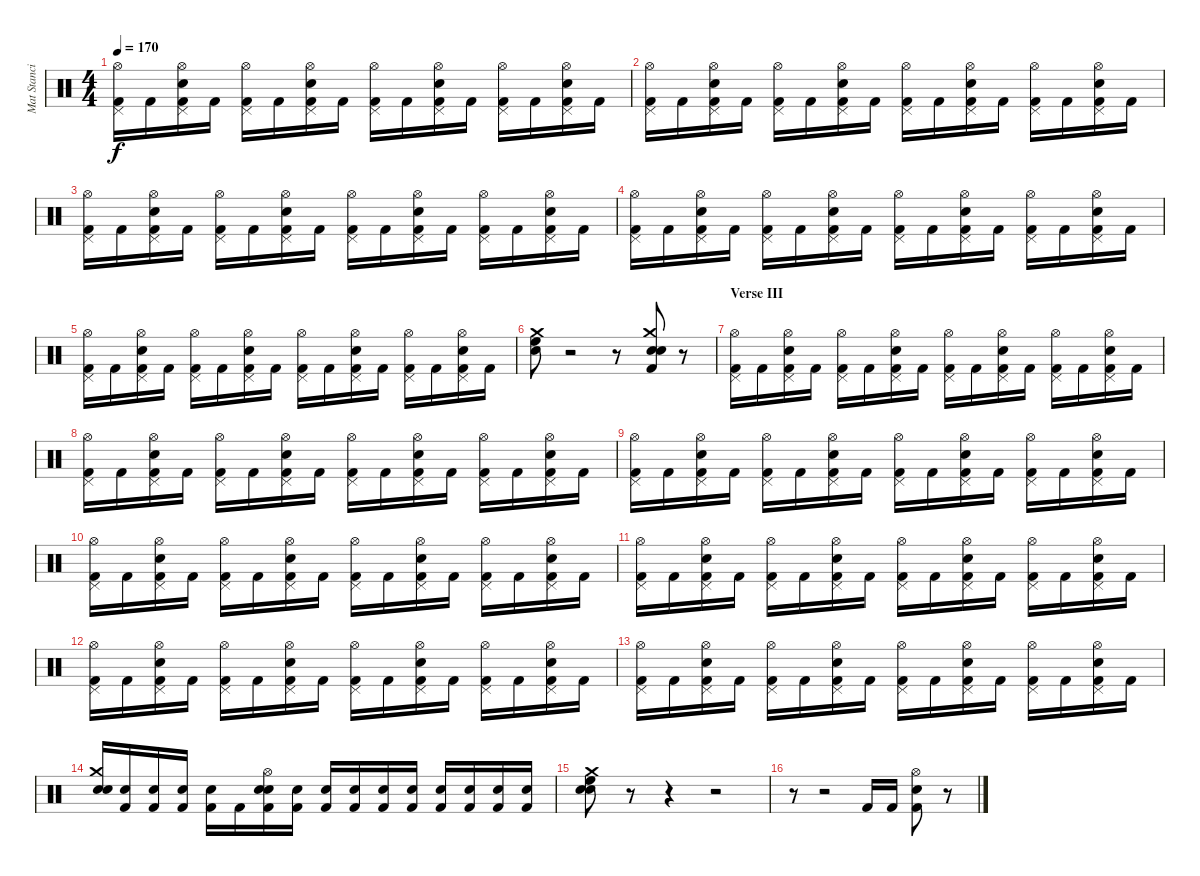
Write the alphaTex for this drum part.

\track ("Mat Stancioiu" "Mat Stanci") {instrument percussion}
\staff {score}
\articulation defaults
\ts (4 4)
\tempo 170
\clef neutral
\ks c
("Hi-Hat (open)" "Kick (hit) 2" "Pedal Hi-Hat (hit)").16{dy f} "Kick (hit) 2".16 ("Electric Snare (hit)" "Hi-Hat (open)" "Kick (hit) 2" "Pedal Hi-Hat (hit)").16 "Kick (hit) 2".16 ("Hi-Hat (open)" "Kick (hit) 2" "Pedal Hi-Hat (hit)").16 "Kick (hit) 2".16 ("Electric Snare (hit)" "Hi-Hat (open)" "Kick (hit) 2" "Pedal Hi-Hat (hit)").16 "Kick (hit) 2".16 ("Hi-Hat (open)" "Kick (hit) 2" "Pedal Hi-Hat (hit)").16 "Kick (hit) 2".16 ("Electric Snare (hit)" "Hi-Hat (open)" "Kick (hit) 2" "Pedal Hi-Hat (hit)").16 "Kick (hit) 2".16 ("Hi-Hat (open)" "Kick (hit) 2" "Pedal Hi-Hat (hit)").16 "Kick (hit) 2".16 ("Electric Snare (hit)" "Hi-Hat (open)" "Kick (hit) 2" "Pedal Hi-Hat (hit)").16 "Kick (hit) 2".16 |
("Hi-Hat (open)" "Kick (hit) 2" "Pedal Hi-Hat (hit)").16 "Kick (hit) 2".16 ("Electric Snare (hit)" "Hi-Hat (open)" "Kick (hit) 2" "Pedal Hi-Hat (hit)").16 "Kick (hit) 2".16 ("Hi-Hat (open)" "Kick (hit) 2" "Pedal Hi-Hat (hit)").16 "Kick (hit) 2".16 ("Electric Snare (hit)" "Hi-Hat (open)" "Kick (hit) 2" "Pedal Hi-Hat (hit)").16 "Kick (hit) 2".16 ("Hi-Hat (open)" "Kick (hit) 2" "Pedal Hi-Hat (hit)").16 "Kick (hit) 2".16 ("Electric Snare (hit)" "Hi-Hat (open)" "Kick (hit) 2" "Pedal Hi-Hat (hit)").16 "Kick (hit) 2".16 ("Hi-Hat (open)" "Kick (hit) 2" "Pedal Hi-Hat (hit)").16 "Kick (hit) 2".16 ("Electric Snare (hit)" "Hi-Hat (open)" "Kick (hit) 2" "Pedal Hi-Hat (hit)").16 "Kick (hit) 2".16 |
("Hi-Hat (open)" "Kick (hit) 2" "Pedal Hi-Hat (hit)").16 "Kick (hit) 2".16 ("Electric Snare (hit)" "Hi-Hat (open)" "Kick (hit) 2" "Pedal Hi-Hat (hit)").16 "Kick (hit) 2".16 ("Hi-Hat (open)" "Kick (hit) 2" "Pedal Hi-Hat (hit)").16 "Kick (hit) 2".16 ("Electric Snare (hit)" "Hi-Hat (open)" "Kick (hit) 2" "Pedal Hi-Hat (hit)").16 "Kick (hit) 2".16 ("Hi-Hat (open)" "Kick (hit) 2" "Pedal Hi-Hat (hit)").16 "Kick (hit) 2".16 ("Electric Snare (hit)" "Hi-Hat (open)" "Kick (hit) 2" "Pedal Hi-Hat (hit)").16 "Kick (hit) 2".16 ("Hi-Hat (open)" "Kick (hit) 2" "Pedal Hi-Hat (hit)").16 "Kick (hit) 2".16 ("Electric Snare (hit)" "Hi-Hat (open)" "Kick (hit) 2" "Pedal Hi-Hat (hit)").16 "Kick (hit) 2".16 |
("Hi-Hat (open)" "Kick (hit) 2" "Pedal Hi-Hat (hit)").16 "Kick (hit) 2".16 ("Electric Snare (hit)" "Hi-Hat (open)" "Kick (hit) 2" "Pedal Hi-Hat (hit)").16 "Kick (hit) 2".16 ("Hi-Hat (open)" "Kick (hit) 2" "Pedal Hi-Hat (hit)").16 "Kick (hit) 2".16 ("Electric Snare (hit)" "Hi-Hat (open)" "Kick (hit) 2" "Pedal Hi-Hat (hit)").16 "Kick (hit) 2".16 ("Hi-Hat (open)" "Kick (hit) 2" "Pedal Hi-Hat (hit)").16 "Kick (hit) 2".16 ("Electric Snare (hit)" "Hi-Hat (open)" "Kick (hit) 2" "Pedal Hi-Hat (hit)").16 "Kick (hit) 2".16 ("Hi-Hat (open)" "Kick (hit) 2" "Pedal Hi-Hat (hit)").16 "Kick (hit) 2".16 ("Electric Snare (hit)" "Hi-Hat (open)" "Kick (hit) 2" "Pedal Hi-Hat (hit)").16 "Kick (hit) 2".16 |
("Hi-Hat (open)" "Kick (hit) 2" "Pedal Hi-Hat (hit)").16 "Kick (hit) 2".16 ("Electric Snare (hit)" "Hi-Hat (open)" "Kick (hit) 2" "Pedal Hi-Hat (hit)").16 "Kick (hit) 2".16 ("Hi-Hat (open)" "Kick (hit) 2" "Pedal Hi-Hat (hit)").16 "Kick (hit) 2".16 ("Electric Snare (hit)" "Hi-Hat (open)" "Kick (hit) 2" "Pedal Hi-Hat (hit)").16 "Kick (hit) 2".16 ("Hi-Hat (open)" "Kick (hit) 2" "Pedal Hi-Hat (hit)").16 "Kick (hit) 2".16 ("Electric Snare (hit)" "Hi-Hat (open)" "Kick (hit) 2" "Pedal Hi-Hat (hit)").16 "Kick (hit) 2".16 ("Hi-Hat (open)" "Kick (hit) 2" "Pedal Hi-Hat (hit)").16 "Kick (hit) 2".16 ("Electric Snare (hit)" "Hi-Hat (open)" "Kick (hit) 2" "Pedal Hi-Hat (hit)").16 "Kick (hit) 2".16 |
("Crash medium (hit)" "High Floor Tom (hit)" "Snare (hit)").8 r.2 r.8 ("Crash medium (hit)" "Electric Snare (hit)" "Kick (hit) 2" "Snare (hit)").8 r.8 |
\section ("" "Verse III")
("Hi-Hat (open)" "Kick (hit) 2" "Pedal Hi-Hat (hit)").16 "Kick (hit) 2".16 ("Electric Snare (hit)" "Hi-Hat (open)" "Kick (hit) 2" "Pedal Hi-Hat (hit)").16 "Kick (hit) 2".16 ("Hi-Hat (open)" "Kick (hit) 2" "Pedal Hi-Hat (hit)").16 "Kick (hit) 2".16 ("Electric Snare (hit)" "Hi-Hat (open)" "Kick (hit) 2" "Pedal Hi-Hat (hit)").16 "Kick (hit) 2".16 ("Hi-Hat (open)" "Kick (hit) 2" "Pedal Hi-Hat (hit)").16 "Kick (hit) 2".16 ("Electric Snare (hit)" "Hi-Hat (open)" "Kick (hit) 2" "Pedal Hi-Hat (hit)").16 "Kick (hit) 2".16 ("Hi-Hat (open)" "Kick (hit) 2" "Pedal Hi-Hat (hit)").16 "Kick (hit) 2".16 ("Electric Snare (hit)" "Hi-Hat (open)" "Kick (hit) 2" "Pedal Hi-Hat (hit)").16 "Kick (hit) 2".16 |
("Hi-Hat (open)" "Kick (hit) 2" "Pedal Hi-Hat (hit)").16 "Kick (hit) 2".16 ("Electric Snare (hit)" "Hi-Hat (open)" "Kick (hit) 2" "Pedal Hi-Hat (hit)").16 "Kick (hit) 2".16 ("Hi-Hat (open)" "Kick (hit) 2" "Pedal Hi-Hat (hit)").16 "Kick (hit) 2".16 ("Electric Snare (hit)" "Hi-Hat (open)" "Kick (hit) 2" "Pedal Hi-Hat (hit)").16 "Kick (hit) 2".16 ("Hi-Hat (open)" "Kick (hit) 2" "Pedal Hi-Hat (hit)").16 "Kick (hit) 2".16 ("Electric Snare (hit)" "Hi-Hat (open)" "Kick (hit) 2" "Pedal Hi-Hat (hit)").16 "Kick (hit) 2".16 ("Hi-Hat (open)" "Kick (hit) 2" "Pedal Hi-Hat (hit)").16 "Kick (hit) 2".16 ("Electric Snare (hit)" "Hi-Hat (open)" "Kick (hit) 2" "Pedal Hi-Hat (hit)").16 "Kick (hit) 2".16 |
("Hi-Hat (open)" "Kick (hit) 2" "Pedal Hi-Hat (hit)").16 "Kick (hit) 2".16 ("Electric Snare (hit)" "Hi-Hat (open)" "Kick (hit) 2" "Pedal Hi-Hat (hit)").16 "Kick (hit) 2".16 ("Hi-Hat (open)" "Kick (hit) 2" "Pedal Hi-Hat (hit)").16 "Kick (hit) 2".16 ("Electric Snare (hit)" "Hi-Hat (open)" "Kick (hit) 2" "Pedal Hi-Hat (hit)").16 "Kick (hit) 2".16 ("Hi-Hat (open)" "Kick (hit) 2" "Pedal Hi-Hat (hit)").16 "Kick (hit) 2".16 ("Electric Snare (hit)" "Hi-Hat (open)" "Kick (hit) 2" "Pedal Hi-Hat (hit)").16 "Kick (hit) 2".16 ("Hi-Hat (open)" "Kick (hit) 2" "Pedal Hi-Hat (hit)").16 "Kick (hit) 2".16 ("Electric Snare (hit)" "Hi-Hat (open)" "Kick (hit) 2" "Pedal Hi-Hat (hit)").16 "Kick (hit) 2".16 |
("Hi-Hat (open)" "Kick (hit) 2" "Pedal Hi-Hat (hit)").16 "Kick (hit) 2".16 ("Electric Snare (hit)" "Hi-Hat (open)" "Kick (hit) 2" "Pedal Hi-Hat (hit)").16 "Kick (hit) 2".16 ("Hi-Hat (open)" "Kick (hit) 2" "Pedal Hi-Hat (hit)").16 "Kick (hit) 2".16 ("Electric Snare (hit)" "Hi-Hat (open)" "Kick (hit) 2" "Pedal Hi-Hat (hit)").16 "Kick (hit) 2".16 ("Hi-Hat (open)" "Kick (hit) 2" "Pedal Hi-Hat (hit)").16 "Kick (hit) 2".16 ("Electric Snare (hit)" "Hi-Hat (open)" "Kick (hit) 2" "Pedal Hi-Hat (hit)").16 "Kick (hit) 2".16 ("Hi-Hat (open)" "Kick (hit) 2" "Pedal Hi-Hat (hit)").16 "Kick (hit) 2".16 ("Electric Snare (hit)" "Hi-Hat (open)" "Kick (hit) 2" "Pedal Hi-Hat (hit)").16 "Kick (hit) 2".16 |
("Hi-Hat (open)" "Kick (hit) 2" "Pedal Hi-Hat (hit)").16 "Kick (hit) 2".16 ("Electric Snare (hit)" "Hi-Hat (open)" "Kick (hit) 2" "Pedal Hi-Hat (hit)").16 "Kick (hit) 2".16 ("Hi-Hat (open)" "Kick (hit) 2" "Pedal Hi-Hat (hit)").16 "Kick (hit) 2".16 ("Electric Snare (hit)" "Hi-Hat (open)" "Kick (hit) 2" "Pedal Hi-Hat (hit)").16 "Kick (hit) 2".16 ("Hi-Hat (open)" "Kick (hit) 2" "Pedal Hi-Hat (hit)").16 "Kick (hit) 2".16 ("Electric Snare (hit)" "Hi-Hat (open)" "Kick (hit) 2" "Pedal Hi-Hat (hit)").16 "Kick (hit) 2".16 ("Hi-Hat (open)" "Kick (hit) 2" "Pedal Hi-Hat (hit)").16 "Kick (hit) 2".16 ("Electric Snare (hit)" "Hi-Hat (open)" "Kick (hit) 2" "Pedal Hi-Hat (hit)").16 "Kick (hit) 2".16 |
("Hi-Hat (open)" "Kick (hit) 2" "Pedal Hi-Hat (hit)").16 "Kick (hit) 2".16 ("Electric Snare (hit)" "Hi-Hat (open)" "Kick (hit) 2" "Pedal Hi-Hat (hit)").16 "Kick (hit) 2".16 ("Hi-Hat (open)" "Kick (hit) 2" "Pedal Hi-Hat (hit)").16 "Kick (hit) 2".16 ("Electric Snare (hit)" "Hi-Hat (open)" "Kick (hit) 2" "Pedal Hi-Hat (hit)").16 "Kick (hit) 2".16 ("Hi-Hat (open)" "Kick (hit) 2" "Pedal Hi-Hat (hit)").16 "Kick (hit) 2".16 ("Electric Snare (hit)" "Hi-Hat (open)" "Kick (hit) 2" "Pedal Hi-Hat (hit)").16 "Kick (hit) 2".16 ("Hi-Hat (open)" "Kick (hit) 2" "Pedal Hi-Hat (hit)").16 "Kick (hit) 2".16 ("Electric Snare (hit)" "Hi-Hat (open)" "Kick (hit) 2" "Pedal Hi-Hat (hit)").16 "Kick (hit) 2".16 |
("Hi-Hat (open)" "Kick (hit) 2" "Pedal Hi-Hat (hit)").16 "Kick (hit) 2".16 ("Electric Snare (hit)" "Hi-Hat (open)" "Kick (hit) 2" "Pedal Hi-Hat (hit)").16 "Kick (hit) 2".16 ("Hi-Hat (open)" "Kick (hit) 2" "Pedal Hi-Hat (hit)").16 "Kick (hit) 2".16 ("Electric Snare (hit)" "Hi-Hat (open)" "Kick (hit) 2" "Pedal Hi-Hat (hit)").16 "Kick (hit) 2".16 ("Hi-Hat (open)" "Kick (hit) 2" "Pedal Hi-Hat (hit)").16 "Kick (hit) 2".16 ("Electric Snare (hit)" "Hi-Hat (open)" "Kick (hit) 2" "Pedal Hi-Hat (hit)").16 "Kick (hit) 2".16 ("Hi-Hat (open)" "Kick (hit) 2" "Pedal Hi-Hat (hit)").16 "Kick (hit) 2".16 ("Electric Snare (hit)" "Hi-Hat (open)" "Kick (hit) 2" "Pedal Hi-Hat (hit)").16 "Kick (hit) 2".16 |
("Electric Snare (hit)" "Crash medium (hit)" "Snare (hit)").16 ("Electric Snare (hit)" "Kick (hit) 2").16 ("Electric Snare (hit)" "Kick (hit) 2").16 ("Electric Snare (hit)" "Kick (hit) 2").16 ("Electric Snare (hit)" "Kick (hit) 2").16 "Kick (hit) 2".16 ("Electric Snare (hit)" "Kick (hit) 2" "Hi-Hat (open)" "Snare (hit)").16 ("Electric Snare (hit)" "Kick (hit) 2").16 ("Electric Snare (hit)" "Kick (hit) 2").16 ("Electric Snare (hit)" "Kick (hit) 2").16 ("Electric Snare (hit)" "Kick (hit) 2").16 ("Electric Snare (hit)" "Kick (hit) 2").16 ("Electric Snare (hit)" "Kick (hit) 2").16 ("Electric Snare (hit)" "Kick (hit) 2").16 ("Electric Snare (hit)" "Kick (hit) 2").16 ("Electric Snare (hit)" "Kick (hit) 2").16 |
("Crash medium (hit)" "High Floor Tom (hit)" "Snare (hit)" "Electric Snare (hit)").8 r.8 r.4 r.2 |
r.8 r.2 "Kick (hit) 2".16 "Kick (hit) 2".16 ("Electric Snare (hit)" "Hi-Hat (open)" "Kick (hit) 2").8 r.8
